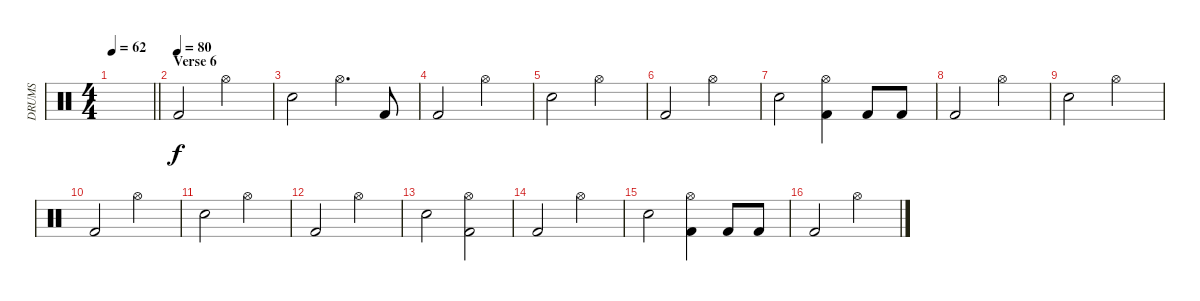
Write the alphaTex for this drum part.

\track ("DRUMS" "DRUMS") {instrument percussion}
\staff {score}
\articulation defaults
\ts (4 4)
\tempo 62
\clef neutral
\barLineRight lightlight
\ks c
|
\section ("" "Verse 6")
\tempo (80)
"Kick (hit) 2".2 "Hi-Hat (open)".2 |
"Snare (hit) 2".2 "Hi-Hat (open)".4{d} "Kick (hit) 2".8 |
"Kick (hit) 2".2 "Hi-Hat (open)".2 |
"Snare (hit) 2".2 "Hi-Hat (open)".2 |
"Kick (hit) 2".2 "Hi-Hat (open)".2 |
"Snare (hit) 2".2 ("Hi-Hat (open)" "Kick (hit) 2").4 "Kick (hit) 2".8 "Kick (hit) 2".8 |
"Kick (hit) 2".2 "Hi-Hat (open)".2 |
"Snare (hit) 2".2 "Hi-Hat (open)".2 |
"Kick (hit) 2".2 "Hi-Hat (open)".2 |
"Snare (hit) 2".2 "Hi-Hat (open)".2 |
"Kick (hit) 2".2 "Hi-Hat (open)".2 |
"Snare (hit) 2".2 ("Hi-Hat (open)" "Kick (hit) 2").2 |
"Kick (hit) 2".2 "Hi-Hat (open)".2 |
"Snare (hit) 2".2 ("Hi-Hat (open)" "Kick (hit) 2").4 "Kick (hit) 2".8 "Kick (hit) 2".8 |
"Kick (hit) 2".2 "Hi-Hat (open)".2
